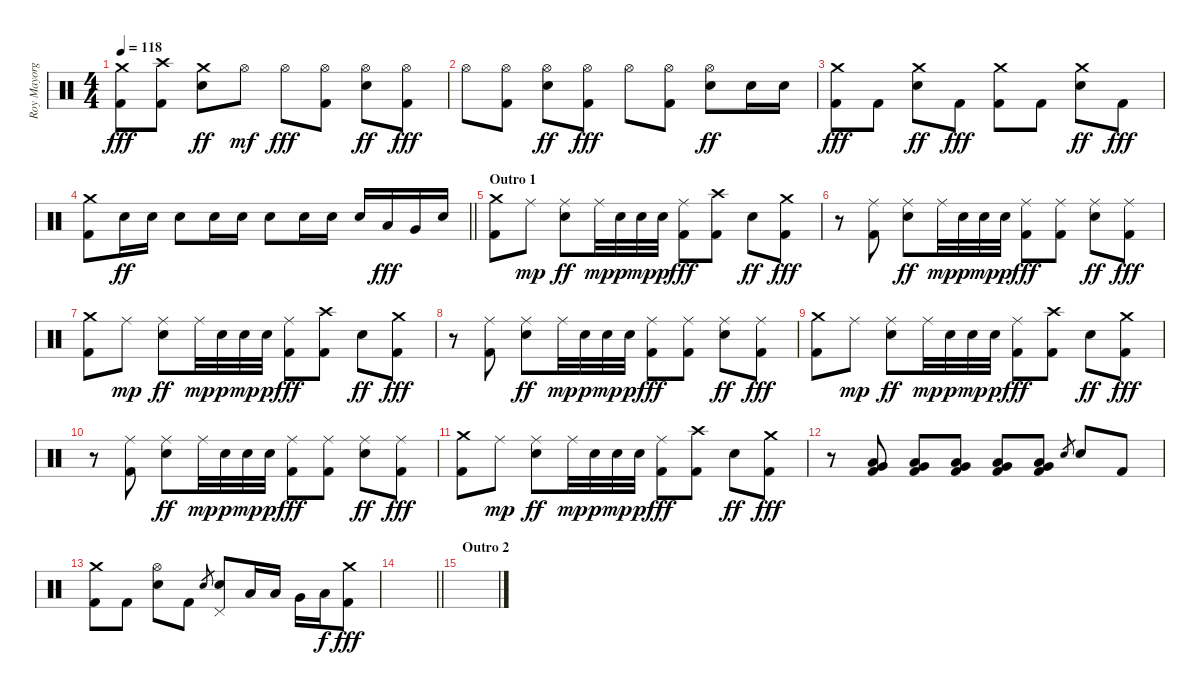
\track ("Roy Mayorga" "Roy Mayorg") {instrument percussion}
\staff {score}
\articulation defaults
\ts (4 4)
\tempo 118
\clef neutral
\ks c
("Crash medium (hit)" "Kick (hit) 2").8{dy fff} ("Crash high (hit)" "Kick (hit) 2").8 ("Crash medium (hit)" "Electric Snare (hit)").8{dy ff} "Hi-Hat (open)".8{dy mf} "Hi-Hat (open)".8{dy fff} ("Hi-Hat (open)" "Kick (hit) 2").8 ("Hi-Hat (open)" "Electric Snare (hit)").8{dy ff} ("Hi-Hat (open)" "Kick (hit) 2").8{dy fff} |
"Hi-Hat (open)".8 ("Hi-Hat (open)" "Kick (hit) 2").8 ("Hi-Hat (open)" "Electric Snare (hit)").8{dy ff} ("Hi-Hat (open)" "Kick (hit) 2").8{dy fff} "Hi-Hat (open)".8 ("Hi-Hat (open)" "Kick (hit) 2").8 ("Hi-Hat (open)" "Electric Snare (hit)").8{dy ff} "Electric Snare (hit)".16 "Electric Snare (hit)".16 |
("Crash medium (hit)" "Kick (hit) 2").8{dy fff} "Kick (hit) 2".8 ("Crash medium (hit)" "Electric Snare (hit)").8{dy ff} "Kick (hit) 2".8{dy fff} ("Crash medium (hit)" "Kick (hit) 2").8 "Kick (hit) 2".8 ("Crash medium (hit)" "Electric Snare (hit)").8{dy ff} "Kick (hit) 2".8{dy fff} |
\barLineRight lightlight
("Crash medium (hit)" "Kick (hit) 2").8 "Electric Snare (hit)".16{dy ff} "Electric Snare (hit)".16 "Electric Snare (hit)".8 "Electric Snare (hit)".16 "Electric Snare (hit)".16 "Electric Snare (hit)".8 "Electric Snare (hit)".16 "Electric Snare (hit)".16 "Electric Snare (hit)".16 "Low Tom (hit)".16{dy fff} "Very Low Tom (hit)".16 "Electric Snare (hit)".16 |
\section ("" "Outro 1")
("Crash medium (hit)" "Kick (hit) 2").8 "Ride (middle)".8{dy mp} ("Ride (middle)" "Electric Snare (hit)").8{dy ff} "Ride (middle)".32{dy mp} "Electric Snare (hit)".32{dy p} "Electric Snare (hit)".32{dy mp} "Electric Snare (hit)".32{dy p} ("Ride (middle)" "Kick (hit) 2").8{dy fff} ("Crash high (hit)" "Kick (hit) 2").8 "Electric Snare (hit)".8{dy ff} ("Crash medium (hit)" "Kick (hit) 2").8{dy fff} |
r.8 ("Ride (middle)" "Kick (hit) 2").8 ("Ride (middle)" "Electric Snare (hit)").8{dy ff} "Ride (middle)".32{dy mp} "Electric Snare (hit)".32{dy p} "Electric Snare (hit)".32{dy mp} "Electric Snare (hit)".32{dy p} ("Ride (middle)" "Kick (hit) 2").8{dy fff} ("Ride (middle)" "Kick (hit) 2").8 ("Ride (middle)" "Electric Snare (hit)").8{dy ff} ("Ride (middle)" "Kick (hit) 2").8{dy fff} |
("Crash medium (hit)" "Kick (hit) 2").8 "Ride (middle)".8{dy mp} ("Ride (middle)" "Electric Snare (hit)").8{dy ff} "Ride (middle)".32{dy mp} "Electric Snare (hit)".32{dy p} "Electric Snare (hit)".32{dy mp} "Electric Snare (hit)".32{dy p} ("Ride (middle)" "Kick (hit) 2").8{dy fff} ("Crash high (hit)" "Kick (hit) 2").8 "Electric Snare (hit)".8{dy ff} ("Crash medium (hit)" "Kick (hit) 2").8{dy fff} |
r.8 ("Ride (middle)" "Kick (hit) 2").8 ("Ride (middle)" "Electric Snare (hit)").8{dy ff} "Ride (middle)".32{dy mp} "Electric Snare (hit)".32{dy p} "Electric Snare (hit)".32{dy mp} "Electric Snare (hit)".32{dy p} ("Ride (middle)" "Kick (hit) 2").8{dy fff} ("Ride (middle)" "Kick (hit) 2").8 ("Ride (middle)" "Electric Snare (hit)").8{dy ff} ("Ride (middle)" "Kick (hit) 2").8{dy fff} |
("Crash medium (hit)" "Kick (hit) 2").8 "Ride (middle)".8{dy mp} ("Ride (middle)" "Electric Snare (hit)").8{dy ff} "Ride (middle)".32{dy mp} "Electric Snare (hit)".32{dy p} "Electric Snare (hit)".32{dy mp} "Electric Snare (hit)".32{dy p} ("Ride (middle)" "Kick (hit) 2").8{dy fff} ("Crash high (hit)" "Kick (hit) 2").8 "Electric Snare (hit)".8{dy ff} ("Crash medium (hit)" "Kick (hit) 2").8{dy fff} |
r.8 ("Ride (middle)" "Kick (hit) 2").8 ("Ride (middle)" "Electric Snare (hit)").8{dy ff} "Ride (middle)".32{dy mp} "Electric Snare (hit)".32{dy p} "Electric Snare (hit)".32{dy mp} "Electric Snare (hit)".32{dy p} ("Ride (middle)" "Kick (hit) 2").8{dy fff} ("Ride (middle)" "Kick (hit) 2").8 ("Ride (middle)" "Electric Snare (hit)").8{dy ff} ("Ride (middle)" "Kick (hit) 2").8{dy fff} |
("Crash medium (hit)" "Kick (hit) 2").8 "Ride (middle)".8{dy mp} ("Ride (middle)" "Electric Snare (hit)").8{dy ff} "Ride (middle)".32{dy mp} "Electric Snare (hit)".32{dy p} "Electric Snare (hit)".32{dy mp} "Electric Snare (hit)".32{dy p} ("Ride (middle)" "Kick (hit) 2").8{dy fff} ("Crash high (hit)" "Kick (hit) 2").8 "Electric Snare (hit)".8{dy ff} ("Crash medium (hit)" "Kick (hit) 2").8{dy fff} |
r.8 ("Very Low Tom (hit)" "Low Floor Tom (hit)" "Kick (hit) 2").8 ("Very Low Tom (hit)" "Low Floor Tom (hit)" "Kick (hit) 2").8 ("Very Low Tom (hit)" "Low Floor Tom (hit)" "Kick (hit) 2").8 ("Very Low Tom (hit)" "Low Floor Tom (hit)" "Kick (hit) 2").8 ("Very Low Tom (hit)" "Low Floor Tom (hit)" "Kick (hit) 2").8 "Electric Snare (hit)".8{gr} "Electric Snare (hit)".8 "Kick (hit) 2".8 |
("Crash medium (hit)" "Kick (hit) 2").8 "Kick (hit) 2".8 ("Hi-Hat (open)" "Electric Snare (hit)").8 "Kick (hit) 2".8 "Electric Snare (hit)".8{gr} ("Electric Snare (hit)" "Pedal Hi-Hat (hit)").8 "Low Tom (hit)".16 "Low Tom (hit)".16 "Very Low Tom (hit)".16 "Low Floor Tom (hit)".16{dy f} ("Crash medium (hit)" "Kick (hit) 2").8{dy fff} |
\barLineRight lightlight
|
\section ("" "Outro 2")
